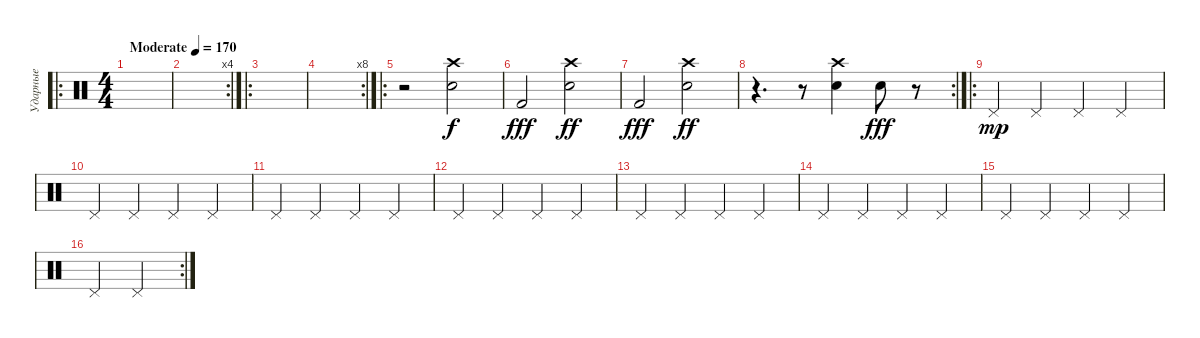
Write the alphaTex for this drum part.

\track ("Ударные" "Ударные") {instrument percussion}
\staff {score}
\articulation defaults
\ro
\ts (4 4)
\tempo (170 "Moderate")
\clef neutral
\ks c
|
\rc 4
|
\ro
|
\rc 8
|
\ro
r.2 ("Electric Snare (hit)" "Crash high (hit)").2 |
"Kick (hit) 2".2{dy fff} ("Electric Snare (hit)" "Crash high (hit)").2{dy ff} |
"Kick (hit) 2".2{dy fff} ("Electric Snare (hit)" "Crash high (hit)").2{dy ff} |
\rc 2
r.4{d} r.8 ("Electric Snare (hit)" "Crash high (hit)").4 "Electric Snare (hit)".8{dy fff} r.8 |
\ro "Pedal Hi-Hat (hit)".4{dy mp} "Pedal Hi-Hat (hit)".4 "Pedal Hi-Hat (hit)".4 "Pedal Hi-Hat (hit)".4
|
"Pedal Hi-Hat (hit)".4 "Pedal Hi-Hat (hit)".4 "Pedal Hi-Hat (hit)".4 "Pedal Hi-Hat (hit)".4 |
"Pedal Hi-Hat (hit)".4 "Pedal Hi-Hat (hit)".4 "Pedal Hi-Hat (hit)".4 "Pedal Hi-Hat (hit)".4 |
"Pedal Hi-Hat (hit)".4 "Pedal Hi-Hat (hit)".4 "Pedal Hi-Hat (hit)".4 "Pedal Hi-Hat (hit)".4 |
"Pedal Hi-Hat (hit)".4 "Pedal Hi-Hat (hit)".4 "Pedal Hi-Hat (hit)".4 "Pedal Hi-Hat (hit)".4 |
"Pedal Hi-Hat (hit)".4 "Pedal Hi-Hat (hit)".4 "Pedal Hi-Hat (hit)".4 "Pedal Hi-Hat (hit)".4 |
"Pedal Hi-Hat (hit)".4 "Pedal Hi-Hat (hit)".4 "Pedal Hi-Hat (hit)".4 "Pedal Hi-Hat (hit)".4 |
\rc 2 "Pedal Hi-Hat (hit)".2 "Pedal Hi-Hat (hit)".2
